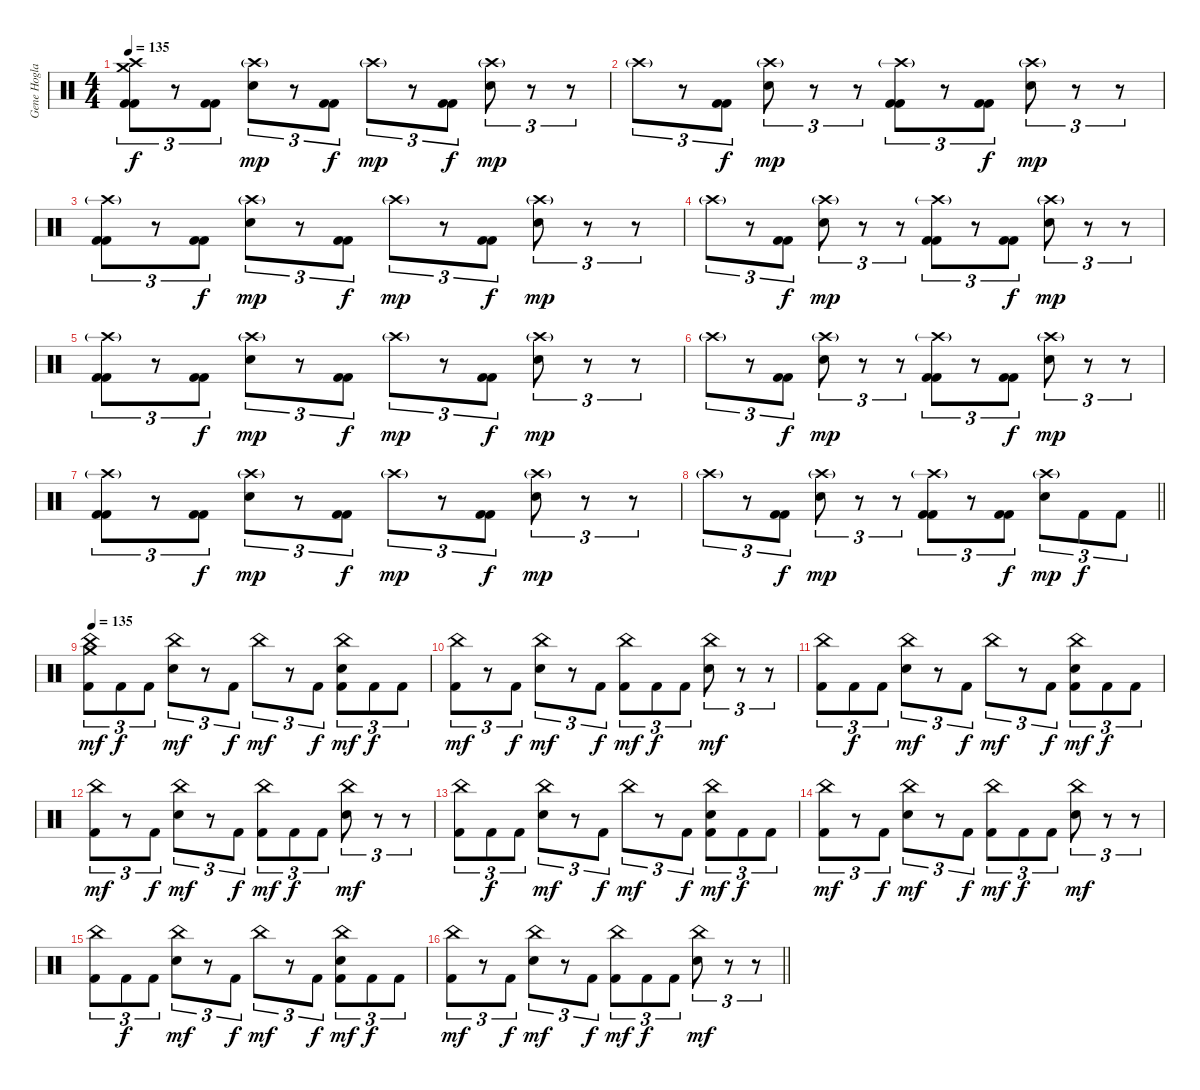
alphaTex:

\track ("Gene Hoglan" "Gene Hogla") {instrument percussion}
\staff {score}
\articulation defaults
\ts (4 4)
\tempo 135
\clef neutral
\ks c
("Crash high (hit)" "Crash medium (hit)" "Kick (hit) 2" "Kick (hit) 2").8{tu (3 2) dy f} r.8{tu (3 2)} ("Kick (hit) 2" "Kick (hit) 2").8{tu (3 2)} ("Crash high (hit)"{g} "Electric Snare (hit)").8{tu (3 2) dy mp} r.8{tu (3 2)} ("Kick (hit) 2" "Kick (hit) 2").8{tu (3 2) dy f} "Crash high (hit)"{g}.8{tu (3 2) dy mp} r.8{tu (3 2)} ("Kick (hit) 2" "Kick (hit) 2").8{tu (3 2) dy f} ("Crash high (hit)"{g} "Electric Snare (hit)").8{tu (3 2) dy mp} r.8{tu (3 2)} r.8{tu (3 2)} |
"Crash high (hit)"{g}.8{tu (3 2)} r.8{tu (3 2)} ("Kick (hit) 2" "Kick (hit) 2").8{tu (3 2) dy f} ("Crash high (hit)"{g} "Electric Snare (hit)").8{tu (3 2) dy mp} r.8{tu (3 2)} r.8{tu (3 2)} ("Crash high (hit)"{g} "Kick (hit) 2" "Kick (hit) 2").8{tu (3 2)} r.8{tu (3 2)} ("Kick (hit) 2" "Kick (hit) 2").8{tu (3 2) dy f} ("Crash high (hit)"{g} "Electric Snare (hit)").8{tu (3 2) dy mp} r.8{tu (3 2)} r.8{tu (3 2)} |
("Crash high (hit)"{g} "Kick (hit) 2" "Kick (hit) 2").8{tu (3 2)} r.8{tu (3 2)} ("Kick (hit) 2" "Kick (hit) 2").8{tu (3 2) dy f} ("Crash high (hit)"{g} "Electric Snare (hit)").8{tu (3 2) dy mp} r.8{tu (3 2)} ("Kick (hit) 2" "Kick (hit) 2").8{tu (3 2) dy f} "Crash high (hit)"{g}.8{tu (3 2) dy mp} r.8{tu (3 2)} ("Kick (hit) 2" "Kick (hit) 2").8{tu (3 2) dy f} ("Crash high (hit)"{g} "Electric Snare (hit)").8{tu (3 2) dy mp} r.8{tu (3 2)} r.8{tu (3 2)} |
"Crash high (hit)"{g}.8{tu (3 2)} r.8{tu (3 2)} ("Kick (hit) 2" "Kick (hit) 2").8{tu (3 2) dy f} ("Crash high (hit)"{g} "Electric Snare (hit)").8{tu (3 2) dy mp} r.8{tu (3 2)} r.8{tu (3 2)} ("Crash high (hit)"{g} "Kick (hit) 2" "Kick (hit) 2").8{tu (3 2)} r.8{tu (3 2)} ("Kick (hit) 2" "Kick (hit) 2").8{tu (3 2) dy f} ("Crash high (hit)"{g} "Electric Snare (hit)").8{tu (3 2) dy mp} r.8{tu (3 2)} r.8{tu (3 2)} |
("Crash high (hit)"{g} "Kick (hit) 2" "Kick (hit) 2").8{tu (3 2)} r.8{tu (3 2)} ("Kick (hit) 2" "Kick (hit) 2").8{tu (3 2) dy f} ("Crash high (hit)"{g} "Electric Snare (hit)").8{tu (3 2) dy mp} r.8{tu (3 2)} ("Kick (hit) 2" "Kick (hit) 2").8{tu (3 2) dy f} "Crash high (hit)"{g}.8{tu (3 2) dy mp} r.8{tu (3 2)} ("Kick (hit) 2" "Kick (hit) 2").8{tu (3 2) dy f} ("Crash high (hit)"{g} "Electric Snare (hit)").8{tu (3 2) dy mp} r.8{tu (3 2)} r.8{tu (3 2)} |
"Crash high (hit)"{g}.8{tu (3 2)} r.8{tu (3 2)} ("Kick (hit) 2" "Kick (hit) 2").8{tu (3 2) dy f} ("Crash high (hit)"{g} "Electric Snare (hit)").8{tu (3 2) dy mp} r.8{tu (3 2)} r.8{tu (3 2)} ("Crash high (hit)"{g} "Kick (hit) 2" "Kick (hit) 2").8{tu (3 2)} r.8{tu (3 2)} ("Kick (hit) 2" "Kick (hit) 2").8{tu (3 2) dy f} ("Crash high (hit)"{g} "Electric Snare (hit)").8{tu (3 2) dy mp} r.8{tu (3 2)} r.8{tu (3 2)} |
("Crash high (hit)"{g} "Kick (hit) 2" "Kick (hit) 2").8{tu (3 2)} r.8{tu (3 2)} ("Kick (hit) 2" "Kick (hit) 2").8{tu (3 2) dy f} ("Crash high (hit)"{g} "Electric Snare (hit)").8{tu (3 2) dy mp} r.8{tu (3 2)} ("Kick (hit) 2" "Kick (hit) 2").8{tu (3 2) dy f} "Crash high (hit)"{g}.8{tu (3 2) dy mp} r.8{tu (3 2)} ("Kick (hit) 2" "Kick (hit) 2").8{tu (3 2) dy f} ("Crash high (hit)"{g} "Electric Snare (hit)").8{tu (3 2) dy mp} r.8{tu (3 2)} r.8{tu (3 2)} |
\barLineRight lightlight "Crash high (hit)"{g}.8{tu (3 2)}
r.8{tu (3 2)} ("Kick (hit) 2" "Kick (hit) 2").8{tu (3 2) dy f} ("Crash high (hit)"{g} "Electric Snare (hit)").8{tu (3 2) dy mp} r.8{tu (3 2)} r.8{tu (3 2)} ("Crash high (hit)"{g} "Kick (hit) 2" "Kick (hit) 2").8{tu (3 2)} r.8{tu (3 2)} ("Kick (hit) 2" "Kick (hit) 2").8{tu (3 2) dy f} ("Crash high (hit)"{g} "Electric Snare (hit)").8{tu (3 2) dy mp} "Kick (hit) 2".8{tu (3 2) dy f} "Kick (hit) 2".8{tu (3 2)} |
\tempo 135
("Crash medium (hit)" "China (hit)" "Kick (hit) 2").8{tu (3 2) dy mf} "Kick (hit) 2".8{tu (3 2) dy f} "Kick (hit) 2".8{tu (3 2)} ("China (hit)" "Electric Snare (hit)").8{tu (3 2) dy mf} r.8{tu (3 2)} "Kick (hit) 2".8{tu (3 2) dy f} "China (hit)".8{tu (3 2) dy mf} r.8{tu (3 2)} "Kick (hit) 2".8{tu (3 2) dy f} ("China (hit)" "Electric Snare (hit)" "Kick (hit) 2").8{tu (3 2) dy mf} "Kick (hit) 2".8{tu (3 2) dy f} "Kick (hit) 2".8{tu (3 2)} |
("China (hit)" "Kick (hit) 2").8{tu (3 2) dy mf} r.8{tu (3 2)} "Kick (hit) 2".8{tu (3 2) dy f} ("China (hit)" "Electric Snare (hit)").8{tu (3 2) dy mf} r.8{tu (3 2)} "Kick (hit) 2".8{tu (3 2) dy f} ("China (hit)" "Kick (hit) 2").8{tu (3 2) dy mf} "Kick (hit) 2".8{tu (3 2) dy f} "Kick (hit) 2".8{tu (3 2)} ("China (hit)" "Electric Snare (hit)").8{tu (3 2) dy mf} r.8{tu (3 2)} r.8{tu (3 2)} |
("China (hit)" "Kick (hit) 2").8{tu (3 2)} "Kick (hit) 2".8{tu (3 2) dy f} "Kick (hit) 2".8{tu (3 2)} ("China (hit)" "Electric Snare (hit)").8{tu (3 2) dy mf} r.8{tu (3 2)} "Kick (hit) 2".8{tu (3 2) dy f} "China (hit)".8{tu (3 2) dy mf} r.8{tu (3 2)} "Kick (hit) 2".8{tu (3 2) dy f} ("China (hit)" "Electric Snare (hit)" "Kick (hit) 2").8{tu (3 2) dy mf} "Kick (hit) 2".8{tu (3 2) dy f} "Kick (hit) 2".8{tu (3 2)} |
("China (hit)" "Kick (hit) 2").8{tu (3 2) dy mf} r.8{tu (3 2)} "Kick (hit) 2".8{tu (3 2) dy f} ("China (hit)" "Electric Snare (hit)").8{tu (3 2) dy mf} r.8{tu (3 2)} "Kick (hit) 2".8{tu (3 2) dy f} ("China (hit)" "Kick (hit) 2").8{tu (3 2) dy mf} "Kick (hit) 2".8{tu (3 2) dy f} "Kick (hit) 2".8{tu (3 2)} ("China (hit)" "Electric Snare (hit)").8{tu (3 2) dy mf} r.8{tu (3 2)} r.8{tu (3 2)} |
("China (hit)" "Kick (hit) 2").8{tu (3 2)} "Kick (hit) 2".8{tu (3 2) dy f} "Kick (hit) 2".8{tu (3 2)} ("China (hit)" "Electric Snare (hit)").8{tu (3 2) dy mf} r.8{tu (3 2)} "Kick (hit) 2".8{tu (3 2) dy f} "China (hit)".8{tu (3 2) dy mf} r.8{tu (3 2)} "Kick (hit) 2".8{tu (3 2) dy f} ("China (hit)" "Electric Snare (hit)" "Kick (hit) 2").8{tu (3 2) dy mf} "Kick (hit) 2".8{tu (3 2) dy f} "Kick (hit) 2".8{tu (3 2)} |
("China (hit)" "Kick (hit) 2").8{tu (3 2) dy mf} r.8{tu (3 2)} "Kick (hit) 2".8{tu (3 2) dy f} ("China (hit)" "Electric Snare (hit)").8{tu (3 2) dy mf} r.8{tu (3 2)} "Kick (hit) 2".8{tu (3 2) dy f} ("China (hit)" "Kick (hit) 2").8{tu (3 2) dy mf} "Kick (hit) 2".8{tu (3 2) dy f} "Kick (hit) 2".8{tu (3 2)} ("China (hit)" "Electric Snare (hit)").8{tu (3 2) dy mf} r.8{tu (3 2)} r.8{tu (3 2)} |
("China (hit)" "Kick (hit) 2").8{tu (3 2)} "Kick (hit) 2".8{tu (3 2) dy f} "Kick (hit) 2".8{tu (3 2)} ("China (hit)" "Electric Snare (hit)").8{tu (3 2) dy mf} r.8{tu (3 2)} "Kick (hit) 2".8{tu (3 2) dy f} "China (hit)".8{tu (3 2) dy mf} r.8{tu (3 2)} "Kick (hit) 2".8{tu (3 2) dy f} ("China (hit)" "Electric Snare (hit)" "Kick (hit) 2").8{tu (3 2) dy mf} "Kick (hit) 2".8{tu (3 2) dy f} "Kick (hit) 2".8{tu (3 2)} |
\barLineRight lightlight
("China (hit)" "Kick (hit) 2").8{tu (3 2) dy mf} r.8{tu (3 2)} "Kick (hit) 2".8{tu (3 2) dy f} ("China (hit)" "Electric Snare (hit)").8{tu (3 2) dy mf} r.8{tu (3 2)} "Kick (hit) 2".8{tu (3 2) dy f} ("China (hit)" "Kick (hit) 2").8{tu (3 2) dy mf} "Kick (hit) 2".8{tu (3 2) dy f} "Kick (hit) 2".8{tu (3 2)} ("China (hit)" "Electric Snare (hit)").8{tu (3 2) dy mf} r.8{tu (3 2)} r.8{tu (3 2)}
